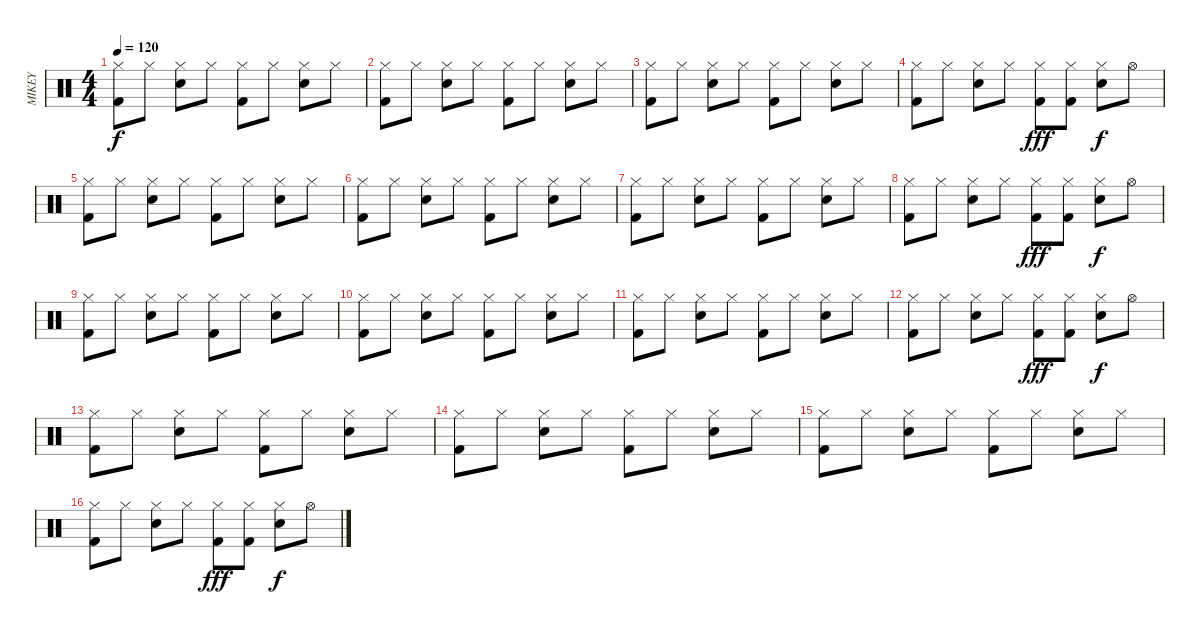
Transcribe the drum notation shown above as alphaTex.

\track ("MIKEY" "MIKEY") {instrument percussion}
\staff {score}
\articulation defaults
\ts (4 4)
\tempo 120
\clef neutral
\ks c
("Hi-Hat (closed)" "Kick (hit) 2").8{dy f} "Hi-Hat (closed)".8 ("Hi-Hat (closed)" "Snare (hit) 2").8 "Hi-Hat (closed)".8 ("Hi-Hat (closed)" "Kick (hit) 2").8 "Hi-Hat (closed)".8 ("Hi-Hat (closed)" "Snare (hit) 2").8 "Hi-Hat (closed)".8 |
("Hi-Hat (closed)" "Kick (hit) 2").8 "Hi-Hat (closed)".8 ("Hi-Hat (closed)" "Snare (hit) 2").8 "Hi-Hat (closed)".8 ("Hi-Hat (closed)" "Kick (hit) 2").8 "Hi-Hat (closed)".8 ("Hi-Hat (closed)" "Snare (hit) 2").8 "Hi-Hat (closed)".8 |
("Hi-Hat (closed)" "Kick (hit) 2").8 "Hi-Hat (closed)".8 ("Hi-Hat (closed)" "Snare (hit) 2").8 "Hi-Hat (closed)".8 ("Hi-Hat (closed)" "Kick (hit) 2").8 "Hi-Hat (closed)".8 ("Hi-Hat (closed)" "Snare (hit) 2").8 "Hi-Hat (closed)".8 |
("Hi-Hat (closed)" "Kick (hit) 2").8 "Hi-Hat (closed)".8 ("Hi-Hat (closed)" "Snare (hit) 2").8 "Hi-Hat (closed)".8 ("Hi-Hat (closed)" "Kick (hit) 2").8{dy fff} ("Hi-Hat (closed)" "Kick (hit) 2").8 ("Hi-Hat (closed)" "Snare (hit) 2").8{dy f} "Hi-Hat (open)".8 |
("Hi-Hat (closed)" "Kick (hit) 2").8 "Hi-Hat (closed)".8 ("Hi-Hat (closed)" "Snare (hit) 2").8 "Hi-Hat (closed)".8 ("Hi-Hat (closed)" "Kick (hit) 2").8 "Hi-Hat (closed)".8 ("Hi-Hat (closed)" "Snare (hit) 2").8 "Hi-Hat (closed)".8 |
("Hi-Hat (closed)" "Kick (hit) 2").8 "Hi-Hat (closed)".8 ("Hi-Hat (closed)" "Snare (hit) 2").8 "Hi-Hat (closed)".8 ("Hi-Hat (closed)" "Kick (hit) 2").8 "Hi-Hat (closed)".8 ("Hi-Hat (closed)" "Snare (hit) 2").8 "Hi-Hat (closed)".8 |
("Hi-Hat (closed)" "Kick (hit) 2").8 "Hi-Hat (closed)".8 ("Hi-Hat (closed)" "Snare (hit) 2").8 "Hi-Hat (closed)".8 ("Hi-Hat (closed)" "Kick (hit) 2").8 "Hi-Hat (closed)".8 ("Hi-Hat (closed)" "Snare (hit) 2").8 "Hi-Hat (closed)".8 |
("Hi-Hat (closed)" "Kick (hit) 2").8 "Hi-Hat (closed)".8 ("Hi-Hat (closed)" "Snare (hit) 2").8 "Hi-Hat (closed)".8 ("Hi-Hat (closed)" "Kick (hit) 2").8{dy fff} ("Hi-Hat (closed)" "Kick (hit) 2").8 ("Hi-Hat (closed)" "Snare (hit) 2").8{dy f} "Hi-Hat (open)".8 |
("Hi-Hat (closed)" "Kick (hit) 2").8 "Hi-Hat (closed)".8 ("Hi-Hat (closed)" "Snare (hit) 2").8 "Hi-Hat (closed)".8 ("Hi-Hat (closed)" "Kick (hit) 2").8 "Hi-Hat (closed)".8 ("Hi-Hat (closed)" "Snare (hit) 2").8 "Hi-Hat (closed)".8 |
("Hi-Hat (closed)" "Kick (hit) 2").8 "Hi-Hat (closed)".8 ("Hi-Hat (closed)" "Snare (hit) 2").8 "Hi-Hat (closed)".8 ("Hi-Hat (closed)" "Kick (hit) 2").8 "Hi-Hat (closed)".8 ("Hi-Hat (closed)" "Snare (hit) 2").8 "Hi-Hat (closed)".8 |
("Hi-Hat (closed)" "Kick (hit) 2").8 "Hi-Hat (closed)".8 ("Hi-Hat (closed)" "Snare (hit) 2").8 "Hi-Hat (closed)".8 ("Hi-Hat (closed)" "Kick (hit) 2").8 "Hi-Hat (closed)".8 ("Hi-Hat (closed)" "Snare (hit) 2").8 "Hi-Hat (closed)".8 |
("Hi-Hat (closed)" "Kick (hit) 2").8 "Hi-Hat (closed)".8 ("Hi-Hat (closed)" "Snare (hit) 2").8 "Hi-Hat (closed)".8 ("Hi-Hat (closed)" "Kick (hit) 2").8{dy fff} ("Hi-Hat (closed)" "Kick (hit) 2").8 ("Hi-Hat (closed)" "Snare (hit) 2").8{dy f} "Hi-Hat (open)".8 |
("Hi-Hat (closed)" "Kick (hit) 2").8 "Hi-Hat (closed)".8 ("Hi-Hat (closed)" "Snare (hit) 2").8 "Hi-Hat (closed)".8 ("Hi-Hat (closed)" "Kick (hit) 2").8 "Hi-Hat (closed)".8 ("Hi-Hat (closed)" "Snare (hit) 2").8 "Hi-Hat (closed)".8 |
("Hi-Hat (closed)" "Kick (hit) 2").8 "Hi-Hat (closed)".8 ("Hi-Hat (closed)" "Snare (hit) 2").8 "Hi-Hat (closed)".8 ("Hi-Hat (closed)" "Kick (hit) 2").8 "Hi-Hat (closed)".8 ("Hi-Hat (closed)" "Snare (hit) 2").8 "Hi-Hat (closed)".8 |
("Hi-Hat (closed)" "Kick (hit) 2").8 "Hi-Hat (closed)".8 ("Hi-Hat (closed)" "Snare (hit) 2").8 "Hi-Hat (closed)".8 ("Hi-Hat (closed)" "Kick (hit) 2").8 "Hi-Hat (closed)".8 ("Hi-Hat (closed)" "Snare (hit) 2").8 "Hi-Hat (closed)".8 |
("Hi-Hat (closed)" "Kick (hit) 2").8 "Hi-Hat (closed)".8 ("Hi-Hat (closed)" "Snare (hit) 2").8 "Hi-Hat (closed)".8 ("Hi-Hat (closed)" "Kick (hit) 2").8{dy fff} ("Hi-Hat (closed)" "Kick (hit) 2").8 ("Hi-Hat (closed)" "Snare (hit) 2").8{dy f} "Hi-Hat (open)".8
